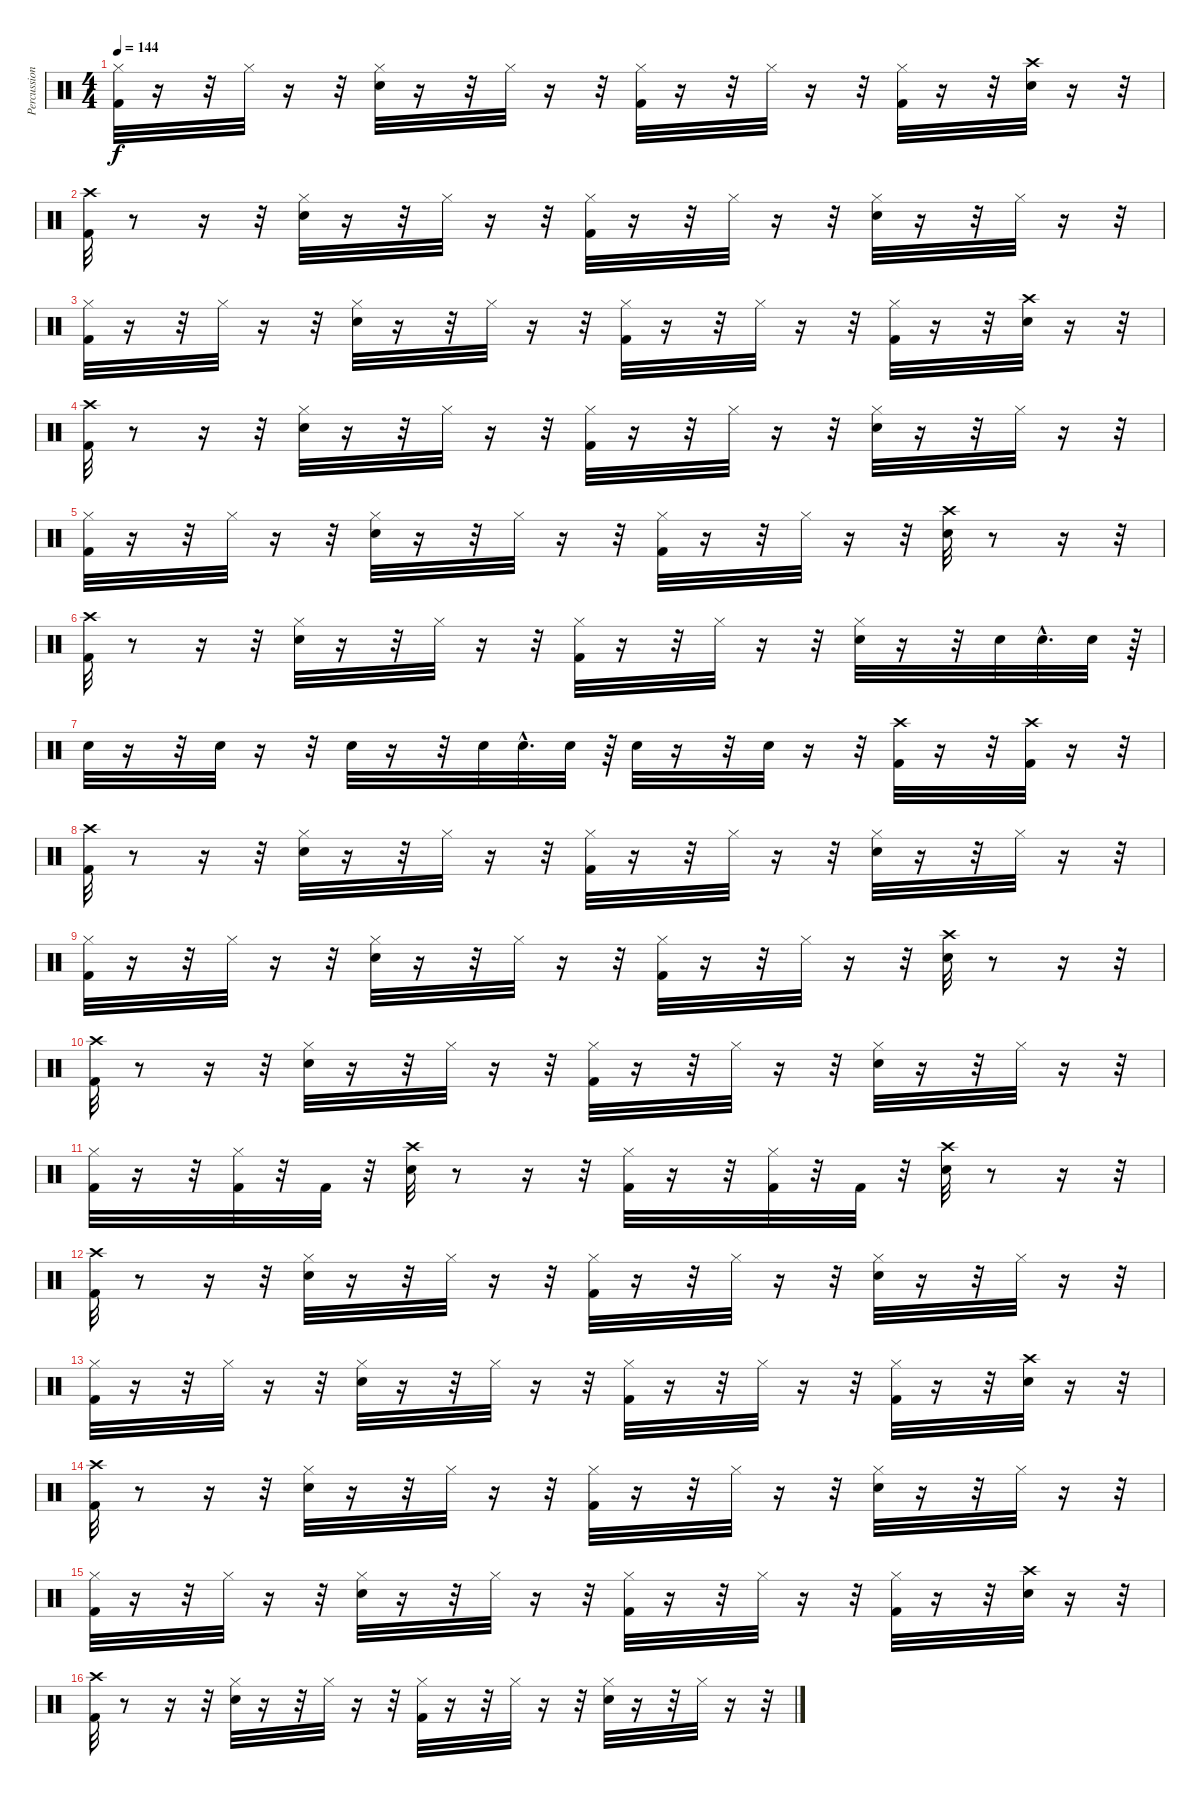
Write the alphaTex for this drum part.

\track ("Percussion" "Percussion") {instrument percussion}
\staff {score}
\articulation defaults
\ts (4 4)
\tempo 144
\clef neutral
\ks c
("Kick (hit) 2" "Hi-Hat (closed)").32{dy f} r.16 r.32 "Hi-Hat (closed)".32 r.16 r.32 ("Snare (hit) 2" "Hi-Hat (closed)").32 r.16 r.32 "Hi-Hat (closed)".32 r.16 r.32 ("Hi-Hat (closed)" "Kick (hit) 2").32 r.16 r.32 "Hi-Hat (closed)".32 r.16 r.32 ("Hi-Hat (closed)" "Kick (hit) 2").32 r.16 r.32 ("Crash high (hit)" "Snare (hit) 2").32 r.16 r.32 |
("Kick (hit) 2" "Crash high (hit)").32 r.8 r.16 r.32 ("Hi-Hat (closed)" "Snare (hit) 2").32 r.16 r.32 "Hi-Hat (closed)".32 r.16 r.32 ("Hi-Hat (closed)" "Kick (hit) 2").32 r.16 r.32 "Hi-Hat (closed)".32 r.16 r.32 ("Snare (hit) 2" "Hi-Hat (closed)").32 r.16 r.32 "Hi-Hat (closed)".32 r.16 r.32 |
("Kick (hit) 2" "Hi-Hat (closed)").32 r.16 r.32 "Hi-Hat (closed)".32 r.16 r.32 ("Snare (hit) 2" "Hi-Hat (closed)").32 r.16 r.32 "Hi-Hat (closed)".32 r.16 r.32 ("Hi-Hat (closed)" "Kick (hit) 2").32 r.16 r.32 "Hi-Hat (closed)".32 r.16 r.32 ("Hi-Hat (closed)" "Kick (hit) 2").32 r.16 r.32 ("Crash high (hit)" "Snare (hit) 2").32 r.16 r.32 |
("Kick (hit) 2" "Crash high (hit)").32 r.8 r.16 r.32 ("Hi-Hat (closed)" "Snare (hit) 2").32 r.16 r.32 "Hi-Hat (closed)".32 r.16 r.32 ("Hi-Hat (closed)" "Kick (hit) 2").32 r.16 r.32 "Hi-Hat (closed)".32 r.16 r.32 ("Snare (hit) 2" "Hi-Hat (closed)").32 r.16 r.32 "Hi-Hat (closed)".32 r.16 r.32 |
("Kick (hit) 2" "Hi-Hat (closed)").32 r.16 r.32 "Hi-Hat (closed)".32 r.16 r.32 ("Snare (hit) 2" "Hi-Hat (closed)").32 r.16 r.32 "Hi-Hat (closed)".32 r.16 r.32 ("Hi-Hat (closed)" "Kick (hit) 2").32 r.16 r.32 "Hi-Hat (closed)".32 r.16 r.32 ("Crash high (hit)" "Snare (hit) 2").32 r.8 r.16 r.32 |
("Crash high (hit)" "Kick (hit) 2").32 r.8 r.16 r.32 ("Snare (hit) 2" "Hi-Hat (closed)").32 r.16 r.32 "Hi-Hat (closed)".32 r.16 r.32 ("Hi-Hat (closed)" "Kick (hit) 2").32 r.16 r.32 "Hi-Hat (closed)".32 r.16 r.32 ("Snare (hit) 2" "Hi-Hat (closed)").32 r.16 r.32 "Snare (hit) 2".32 "Snare (hit) 2"{hac}.32{d} "Snare (hit) 2".32 r.64 |
"Snare (hit) 2".32 r.16 r.32 "Snare (hit) 2".32 r.16 r.32 "Snare (hit) 2".32 r.16 r.32 "Snare (hit) 2".32 "Snare (hit) 2"{hac}.32{d} "Snare (hit) 2".32 r.64 "Snare (hit) 2".32 r.16 r.32 "Snare (hit) 2".32 r.16 r.32 ("Kick (hit) 2" "Crash high (hit)").32 r.16 r.32 ("Kick (hit) 2" "Crash high (hit)").32 r.16 r.32 |
("Kick (hit) 2" "Crash high (hit)").32 r.8 r.16 r.32 ("Hi-Hat (closed)" "Snare (hit) 2").32 r.16 r.32 "Hi-Hat (closed)".32 r.16 r.32 ("Hi-Hat (closed)" "Kick (hit) 2").32 r.16 r.32 "Hi-Hat (closed)".32 r.16 r.32 ("Snare (hit) 2" "Hi-Hat (closed)").32 r.16 r.32 "Hi-Hat (closed)".32 r.16 r.32 |
("Kick (hit) 2" "Hi-Hat (closed)").32 r.16 r.32 "Hi-Hat (closed)".32 r.16 r.32 ("Snare (hit) 2" "Hi-Hat (closed)").32 r.16 r.32 "Hi-Hat (closed)".32 r.16 r.32 ("Hi-Hat (closed)" "Kick (hit) 2").32 r.16 r.32 "Hi-Hat (closed)".32 r.16 r.32 ("Crash high (hit)" "Snare (hit) 2").32 r.8 r.16 r.32 |
("Kick (hit) 2" "Crash high (hit)").32 r.8 r.16 r.32 ("Hi-Hat (closed)" "Snare (hit) 2").32 r.16 r.32 "Hi-Hat (closed)".32 r.16 r.32 ("Hi-Hat (closed)" "Kick (hit) 2").32 r.16 r.32 "Hi-Hat (closed)".32 r.16 r.32 ("Snare (hit) 2" "Hi-Hat (closed)").32 r.16 r.32 "Hi-Hat (closed)".32 r.16 r.32 |
("Kick (hit) 2" "Hi-Hat (closed)").32 r.16 r.32 ("Kick (hit) 2" "Hi-Hat (closed)").32 r.32 "Kick (hit) 2".32 r.32 ("Crash high (hit)" "Snare (hit) 2").32 r.8 r.16 r.32 ("Kick (hit) 2" "Hi-Hat (closed)").32 r.16 r.32 ("Kick (hit) 2" "Hi-Hat (closed)").32 r.32 "Kick (hit) 2".32 r.32 ("Crash high (hit)" "Snare (hit) 2").32 r.8 r.16 r.32 |
("Kick (hit) 2" "Crash high (hit)").32 r.8 r.16 r.32 ("Hi-Hat (closed)" "Snare (hit) 2").32 r.16 r.32 "Hi-Hat (closed)".32 r.16 r.32 ("Hi-Hat (closed)" "Kick (hit) 2").32 r.16 r.32 "Hi-Hat (closed)".32 r.16 r.32 ("Snare (hit) 2" "Hi-Hat (closed)").32 r.16 r.32 "Hi-Hat (closed)".32 r.16 r.32 |
("Kick (hit) 2" "Hi-Hat (closed)").32 r.16 r.32 "Hi-Hat (closed)".32 r.16 r.32 ("Snare (hit) 2" "Hi-Hat (closed)").32 r.16 r.32 "Hi-Hat (closed)".32 r.16 r.32 ("Hi-Hat (closed)" "Kick (hit) 2").32 r.16 r.32 "Hi-Hat (closed)".32 r.16 r.32 ("Hi-Hat (closed)" "Kick (hit) 2").32 r.16 r.32 ("Crash high (hit)" "Snare (hit) 2").32 r.16 r.32 |
("Kick (hit) 2" "Crash high (hit)").32 r.8 r.16 r.32 ("Hi-Hat (closed)" "Snare (hit) 2").32 r.16 r.32 "Hi-Hat (closed)".32 r.16 r.32 ("Hi-Hat (closed)" "Kick (hit) 2").32 r.16 r.32 "Hi-Hat (closed)".32 r.16 r.32 ("Snare (hit) 2" "Hi-Hat (closed)").32 r.16 r.32 "Hi-Hat (closed)".32 r.16 r.32 |
("Kick (hit) 2" "Hi-Hat (closed)").32 r.16 r.32 "Hi-Hat (closed)".32 r.16 r.32 ("Snare (hit) 2" "Hi-Hat (closed)").32 r.16 r.32 "Hi-Hat (closed)".32 r.16 r.32 ("Hi-Hat (closed)" "Kick (hit) 2").32 r.16 r.32 "Hi-Hat (closed)".32 r.16 r.32 ("Hi-Hat (closed)" "Kick (hit) 2").32 r.16 r.32 ("Crash high (hit)" "Snare (hit) 2").32 r.16 r.32 |
("Kick (hit) 2" "Crash high (hit)").32 r.8 r.16 r.32 ("Hi-Hat (closed)" "Snare (hit) 2").32 r.16 r.32 "Hi-Hat (closed)".32 r.16 r.32 ("Hi-Hat (closed)" "Kick (hit) 2").32 r.16 r.32 "Hi-Hat (closed)".32 r.16 r.32 ("Snare (hit) 2" "Hi-Hat (closed)").32 r.16 r.32 "Hi-Hat (closed)".32 r.16 r.32
